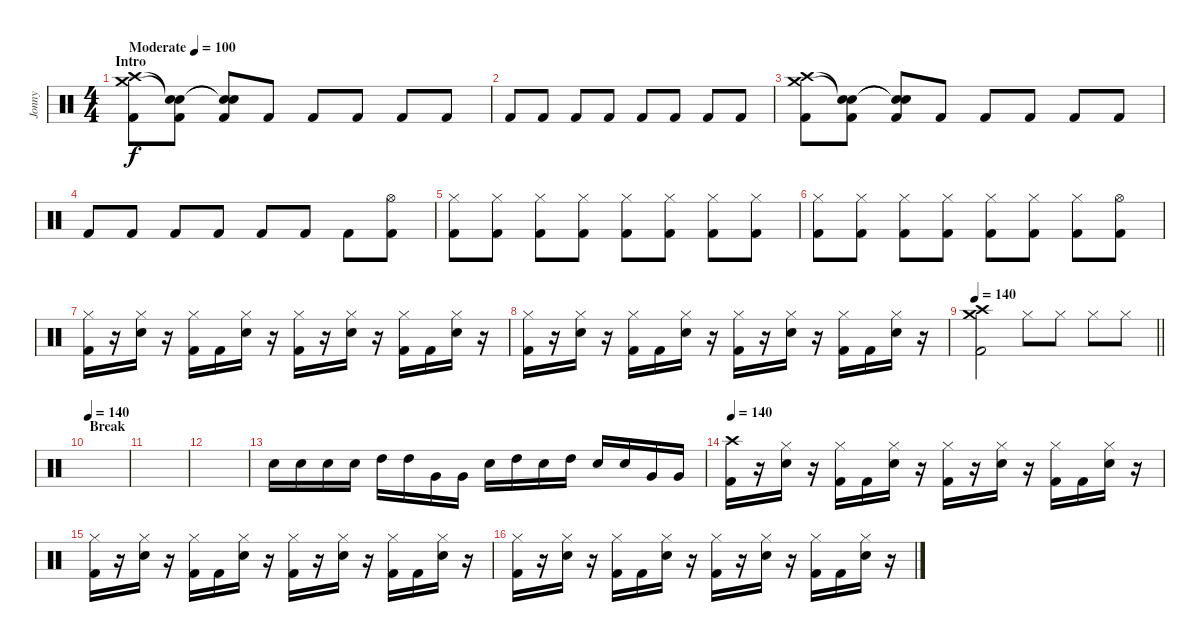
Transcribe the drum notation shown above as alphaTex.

\track ("Jonny" "Jonny") {instrument percussion}
\staff {score}
\articulation defaults
\ts (4 4)
\section ("" "Intro")
\tempo (100 "Moderate")
\clef neutral
\ks c
("Crash high (hit)" "Crash medium (hit)" "Kick (hit) 2").8{dy f} ("Snare (hit)"{t} "Snare (hit)"{t} "Kick (hit) 2").8 ("Snare (hit)"{t} "Snare (hit)"{t} "Kick (hit) 2").8 "Kick (hit) 2".8 "Kick (hit) 2".8 "Kick (hit) 2".8 "Kick (hit) 2".8 "Kick (hit) 2".8 |
"Kick (hit) 2".8 "Kick (hit) 2".8 "Kick (hit) 2".8 "Kick (hit) 2".8 "Kick (hit) 2".8 "Kick (hit) 2".8 "Kick (hit) 2".8 "Kick (hit) 2".8 |
("Crash high (hit)" "Crash medium (hit)" "Kick (hit) 2").8 ("Snare (hit)"{t} "Snare (hit)"{t} "Kick (hit) 2").8 ("Snare (hit)"{t} "Snare (hit)"{t} "Kick (hit) 2").8 "Kick (hit) 2".8 "Kick (hit) 2".8 "Kick (hit) 2".8 "Kick (hit) 2".8 "Kick (hit) 2".8 |
"Kick (hit) 2".8 "Kick (hit) 2".8 "Kick (hit) 2".8 "Kick (hit) 2".8 "Kick (hit) 2".8 "Kick (hit) 2".8 "Kick (hit) 2".8 ("Hi-Hat (open)" "Kick (hit) 2").8 |
("Hi-Hat (closed)" "Kick (hit) 2").8 ("Hi-Hat (closed)" "Kick (hit) 2").8 ("Hi-Hat (closed)" "Kick (hit) 2").8 ("Hi-Hat (closed)" "Kick (hit) 2").8 ("Hi-Hat (closed)" "Kick (hit) 2").8 ("Hi-Hat (closed)" "Kick (hit) 2").8 ("Hi-Hat (closed)" "Kick (hit) 2").8 ("Hi-Hat (closed)" "Kick (hit) 2").8 |
("Hi-Hat (closed)" "Kick (hit) 2").8 ("Hi-Hat (closed)" "Kick (hit) 2").8 ("Hi-Hat (closed)" "Kick (hit) 2").8 ("Hi-Hat (closed)" "Kick (hit) 2").8 ("Hi-Hat (closed)" "Kick (hit) 2").8 ("Hi-Hat (closed)" "Kick (hit) 2").8 ("Hi-Hat (closed)" "Kick (hit) 2").8 ("Hi-Hat (open)" "Kick (hit) 2").8 |
("Hi-Hat (closed)" "Kick (hit) 2").16 r.16 ("Hi-Hat (closed)" "Electric Snare (hit)").16 r.16 ("Hi-Hat (closed)" "Kick (hit) 2").16 "Kick (hit) 2".16 ("Hi-Hat (closed)" "Electric Snare (hit)").16 r.16 ("Hi-Hat (closed)" "Kick (hit) 2").16 r.16 ("Hi-Hat (closed)" "Electric Snare (hit)").16 r.16 ("Hi-Hat (closed)" "Kick (hit) 2").16 "Kick (hit) 2".16 ("Hi-Hat (closed)" "Electric Snare (hit)").16 r.16 |
("Hi-Hat (closed)" "Kick (hit) 2").16 r.16 ("Hi-Hat (closed)" "Electric Snare (hit)").16 r.16 ("Hi-Hat (closed)" "Kick (hit) 2").16 "Kick (hit) 2".16 ("Hi-Hat (closed)" "Electric Snare (hit)").16 r.16 ("Hi-Hat (closed)" "Kick (hit) 2").16 r.16 ("Hi-Hat (closed)" "Electric Snare (hit)").16 r.16 ("Hi-Hat (closed)" "Kick (hit) 2").16 "Kick (hit) 2".16 ("Hi-Hat (closed)" "Electric Snare (hit)").16 r.16 |
\tempo 140
\barLineRight lightlight
("Crash high (hit)" "Crash medium (hit)" "Kick (hit) 2").2 "Hi-Hat (closed)".8 "Hi-Hat (closed)".8 "Hi-Hat (closed)".8 "Hi-Hat (closed)".8 |
\section ("" "Break")
\tempo 140
|
|
|
"Electric Snare (hit)".16 "Electric Snare (hit)".16 "Electric Snare (hit)".16 "Electric Snare (hit)".16 "High Tom (hit)".16 "High Tom (hit)".16 "Very Low Tom (hit)".16 "Very Low Tom (hit)".16 "Electric Snare (hit)".16 "High Tom (hit)".16 "Electric Snare (hit)".16 "High Tom (hit)".16 "Electric Snare (hit)".16 "Electric Snare (hit)".16 "Very Low Tom (hit)".16 "Very Low Tom (hit)".16 |
\tempo 140
("Crash high (hit)" "Kick (hit) 2").16 r.16 ("Hi-Hat (closed)" "Electric Snare (hit)").16 r.16 ("Hi-Hat (closed)" "Kick (hit) 2").16 "Kick (hit) 2".16 ("Hi-Hat (closed)" "Electric Snare (hit)").16 r.16 ("Hi-Hat (closed)" "Kick (hit) 2").16 r.16 ("Hi-Hat (closed)" "Electric Snare (hit)").16 r.16 ("Hi-Hat (closed)" "Kick (hit) 2").16 "Kick (hit) 2".16 ("Hi-Hat (closed)" "Electric Snare (hit)").16 r.16 |
("Hi-Hat (closed)" "Kick (hit) 2").16 r.16 ("Hi-Hat (closed)" "Electric Snare (hit)").16 r.16 ("Hi-Hat (closed)" "Kick (hit) 2").16 "Kick (hit) 2".16 ("Hi-Hat (closed)" "Electric Snare (hit)").16 r.16 ("Hi-Hat (closed)" "Kick (hit) 2").16 r.16 ("Hi-Hat (closed)" "Electric Snare (hit)").16 r.16 ("Hi-Hat (closed)" "Kick (hit) 2").16 "Kick (hit) 2".16 ("Hi-Hat (closed)" "Electric Snare (hit)").16 r.16 |
("Hi-Hat (closed)" "Kick (hit) 2").16 r.16 ("Hi-Hat (closed)" "Electric Snare (hit)").16 r.16 ("Hi-Hat (closed)" "Kick (hit) 2").16 "Kick (hit) 2".16 ("Hi-Hat (closed)" "Electric Snare (hit)").16 r.16 ("Hi-Hat (closed)" "Kick (hit) 2").16 r.16 ("Hi-Hat (closed)" "Electric Snare (hit)").16 r.16 ("Hi-Hat (closed)" "Kick (hit) 2").16 "Kick (hit) 2".16 ("Hi-Hat (closed)" "Electric Snare (hit)").16 r.16
